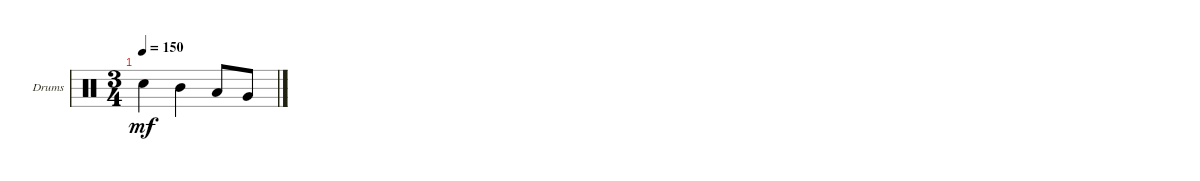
\defaultSystemsLayout 4
\bracketExtendMode groupsimilarinstruments
\firstSystemTrackNameOrientation horizontal
\otherSystemsTrackNameOrientation horizontal
\track ("Drumkit" "Drums") {instrument percussion}
\staff {score}
\articulation defaults
\ts (3 4)
\tempo 150
\clef neutral
\scale
0.263889
\ks c "Snare (hit) 2".4{dy mf} "Mid Tom (hit)".4 "Low Tom (hit)".8 "Very Low Tom (hit)".8
|
\scale
0.263889 |
\scale
0.333333 |
\scale
0.333333 |
\scale
0.333333 |
\scale
0.333333 |
\scale
0.333333 |
\scale
0.333333 |
\scale
0.333333 |
\scale
0.333333 |
\scale
0.333333 |
\scale
0.333333 |
\scale
0.333333 |
\scale
0.333333 |
\scale
0.333333 |
\scale
0.333333
